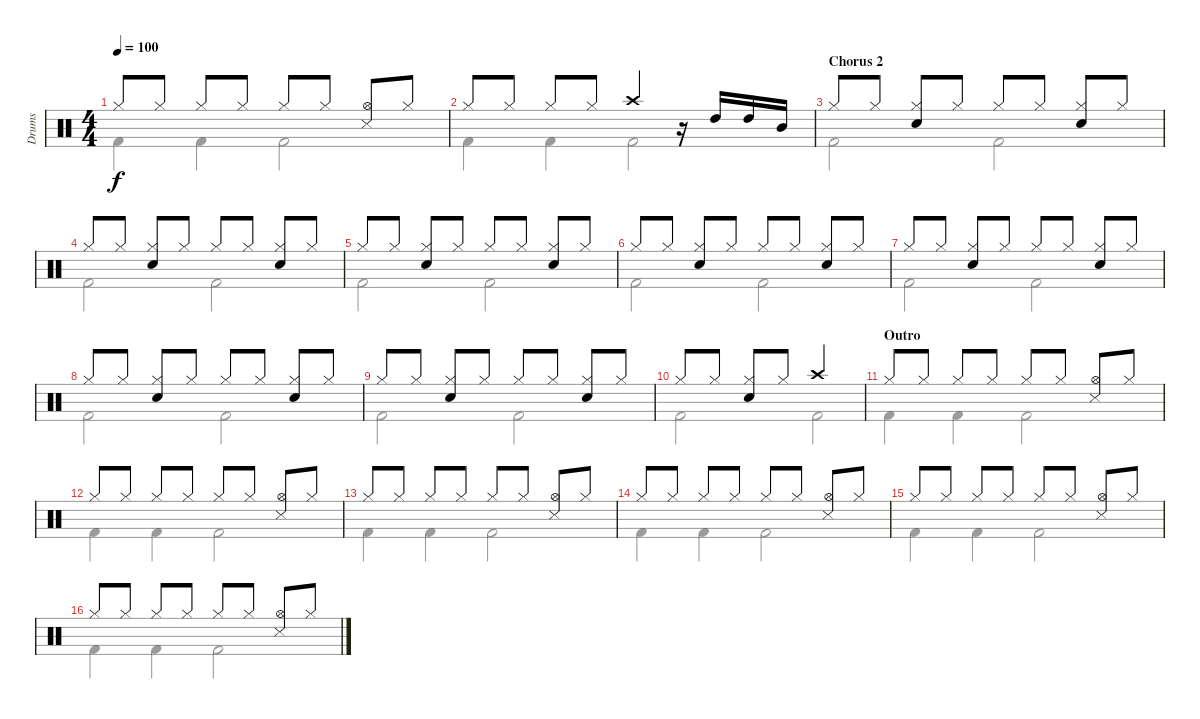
\track ("Drums" "Drums") {instrument percussion}
\staff {score}
\articulation defaults
\voice
\ts (4 4)
\tempo 100
\clef neutral
\ks c "Hi-Hat (closed)".8{dy f} "Hi-Hat (closed)".8 "Hi-Hat (closed)".8 "Hi-Hat (closed)".8 "Hi-Hat (closed)".8 "Hi-Hat (closed)".8
("Hi-Hat (open)" "Snare (side stick) 3").8 "Hi-Hat (closed)".8 |
"Hi-Hat (closed)".8 "Hi-Hat (closed)".8 "Hi-Hat (closed)".8 "Hi-Hat (closed)".8 "Crash high (hit)".4 r.16 "High Tom (hit)".16 "High Tom (hit)".16 "Mid Tom (hit)".16 |
\section ("" "Chorus 2")
"Hi-Hat (closed)".8 "Hi-Hat (closed)".8 ("Hi-Hat (closed)" "Snare (hit) 2").8 "Hi-Hat (closed)".8 "Hi-Hat (closed)".8 "Hi-Hat (closed)".8 ("Hi-Hat (closed)" "Snare (hit) 2").8 "Hi-Hat (closed)".8 |
"Hi-Hat (closed)".8 "Hi-Hat (closed)".8 ("Hi-Hat (closed)" "Snare (hit) 2").8 "Hi-Hat (closed)".8 "Hi-Hat (closed)".8 "Hi-Hat (closed)".8 ("Hi-Hat (closed)" "Snare (hit) 2").8 "Hi-Hat (closed)".8 |
"Hi-Hat (closed)".8 "Hi-Hat (closed)".8 ("Hi-Hat (closed)" "Snare (hit) 2").8 "Hi-Hat (closed)".8 "Hi-Hat (closed)".8 "Hi-Hat (closed)".8 ("Hi-Hat (closed)" "Snare (hit) 2").8 "Hi-Hat (closed)".8 |
"Hi-Hat (closed)".8 "Hi-Hat (closed)".8 ("Hi-Hat (closed)" "Snare (hit) 2").8 "Hi-Hat (closed)".8 "Hi-Hat (closed)".8 "Hi-Hat (closed)".8 ("Hi-Hat (closed)" "Snare (hit) 2").8 "Hi-Hat (closed)".8 |
"Hi-Hat (closed)".8 "Hi-Hat (closed)".8 ("Hi-Hat (closed)" "Snare (hit) 2").8 "Hi-Hat (closed)".8 "Hi-Hat (closed)".8 "Hi-Hat (closed)".8 ("Hi-Hat (closed)" "Snare (hit) 2").8 "Hi-Hat (closed)".8 |
"Hi-Hat (closed)".8 "Hi-Hat (closed)".8 ("Hi-Hat (closed)" "Snare (hit) 2").8 "Hi-Hat (closed)".8 "Hi-Hat (closed)".8 "Hi-Hat (closed)".8 ("Hi-Hat (closed)" "Snare (hit) 2").8 "Hi-Hat (closed)".8 |
"Hi-Hat (closed)".8 "Hi-Hat (closed)".8 ("Hi-Hat (closed)" "Snare (hit) 2").8 "Hi-Hat (closed)".8 "Hi-Hat (closed)".8 "Hi-Hat (closed)".8 ("Hi-Hat (closed)" "Snare (hit) 2").8 "Hi-Hat (closed)".8 |
"Hi-Hat (closed)".8 "Hi-Hat (closed)".8 ("Hi-Hat (closed)" "Snare (hit) 2").8 "Hi-Hat (closed)".8 "Crash high (hit)".2 |
\section ("" "Outro")
"Hi-Hat (closed)".8 "Hi-Hat (closed)".8 "Hi-Hat (closed)".8 "Hi-Hat (closed)".8 "Hi-Hat (closed)".8 "Hi-Hat (closed)".8 ("Hi-Hat (open)" "Snare (side stick) 3").8 "Hi-Hat (closed)".8 |
"Hi-Hat (closed)".8 "Hi-Hat (closed)".8 "Hi-Hat (closed)".8 "Hi-Hat (closed)".8 "Hi-Hat (closed)".8 "Hi-Hat (closed)".8 ("Hi-Hat (open)" "Snare (side stick) 3").8 "Hi-Hat (closed)".8 |
"Hi-Hat (closed)".8 "Hi-Hat (closed)".8 "Hi-Hat (closed)".8 "Hi-Hat (closed)".8 "Hi-Hat (closed)".8 "Hi-Hat (closed)".8 ("Hi-Hat (open)" "Snare (side stick) 3").8 "Hi-Hat (closed)".8 |
"Hi-Hat (closed)".8 "Hi-Hat (closed)".8 "Hi-Hat (closed)".8 "Hi-Hat (closed)".8 "Hi-Hat (closed)".8 "Hi-Hat (closed)".8 ("Hi-Hat (open)" "Snare (side stick) 3").8 "Hi-Hat (closed)".8 |
"Hi-Hat (closed)".8 "Hi-Hat (closed)".8 "Hi-Hat (closed)".8 "Hi-Hat (closed)".8 "Hi-Hat (closed)".8 "Hi-Hat (closed)".8 ("Hi-Hat (open)" "Snare (side stick) 3").8 "Hi-Hat (closed)".8 |
"Hi-Hat (closed)".8 "Hi-Hat (closed)".8 "Hi-Hat (closed)".8 "Hi-Hat (closed)".8 "Hi-Hat (closed)".8 "Hi-Hat (closed)".8 ("Hi-Hat (open)" "Snare (side stick) 3").8 "Hi-Hat (closed)".8
\voice
\clef neutral
\ottava regular
\simile none
\ks c "Kick (hit) 2".4{dy f} "Kick (hit) 2".4 "Kick (hit) 2".2
|
"Kick (hit) 2".4 "Kick (hit) 2".4 "Kick (hit) 2".2 |
"Kick (hit) 2".2 "Kick (hit) 2".2 |
"Kick (hit) 2".2 "Kick (hit) 2".2 |
"Kick (hit) 2".2 "Kick (hit) 2".2 |
"Kick (hit) 2".2 "Kick (hit) 2".2 |
"Kick (hit) 2".2 "Kick (hit) 2".2 |
"Kick (hit) 2".2 "Kick (hit) 2".2 |
"Kick (hit) 2".2 "Kick (hit) 2".2 |
"Kick (hit) 2".2 "Kick (hit) 2".2 |
"Kick (hit) 2".4 "Kick (hit) 2".4 "Kick (hit) 2".2 |
"Kick (hit) 2".4 "Kick (hit) 2".4 "Kick (hit) 2".2 |
"Kick (hit) 2".4 "Kick (hit) 2".4 "Kick (hit) 2".2 |
"Kick (hit) 2".4 "Kick (hit) 2".4 "Kick (hit) 2".2 |
"Kick (hit) 2".4 "Kick (hit) 2".4 "Kick (hit) 2".2 |
"Kick (hit) 2".4 "Kick (hit) 2".4 "Kick (hit) 2".2
